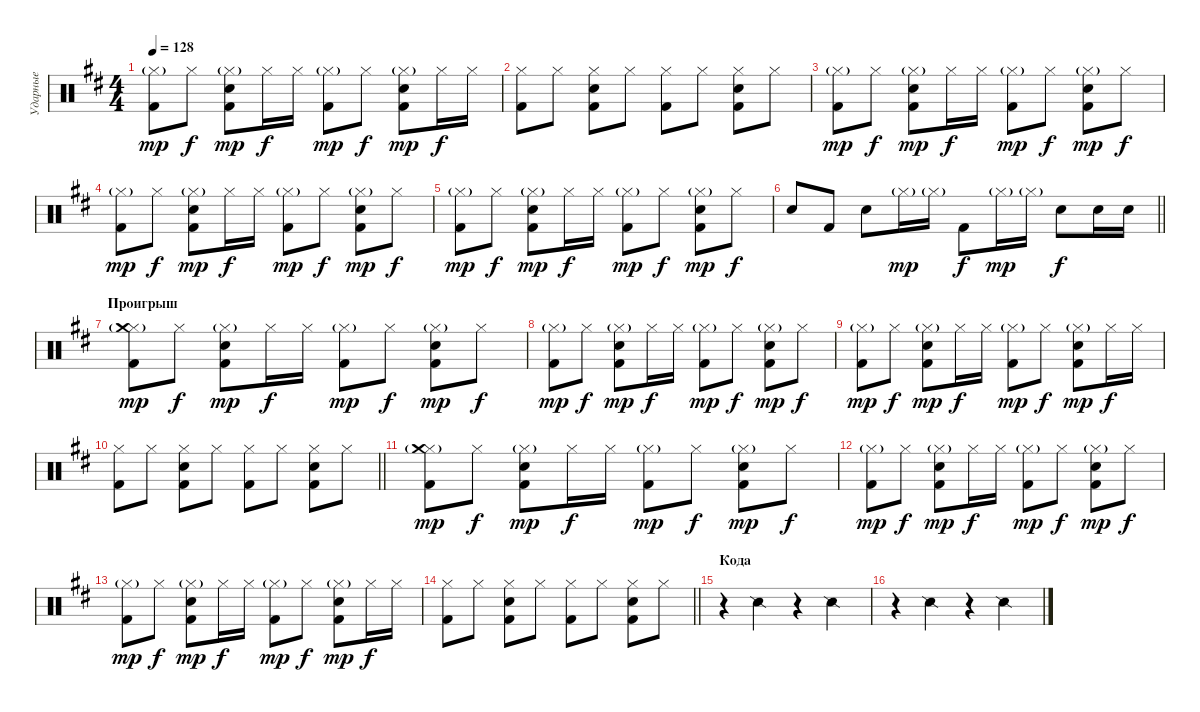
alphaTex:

\track ("Ударные" "Ударные") {instrument percussion}
\staff {score}
\articulation defaults
\ts (4 4)
\tempo 128
\clef neutral
\ks bminor
("Hi-Hat (closed)"{g} "Kick (hit) 2").8{dy mp} "Hi-Hat (closed)".8{dy f} ("Hi-Hat (closed)"{g} "Kick (hit) 2" "Snare (hit) 2").8{dy mp} "Hi-Hat (closed)".16{dy f} "Hi-Hat (closed)".16 ("Hi-Hat (closed)"{g} "Kick (hit) 2").8{dy mp} "Hi-Hat (closed)".8{dy f} ("Hi-Hat (closed)"{g} "Kick (hit) 2" "Snare (hit) 2").8{dy mp} "Hi-Hat (closed)".16{dy f} "Hi-Hat (closed)".16 |
("Hi-Hat (closed)" "Kick (hit) 2").8 "Hi-Hat (closed)".8 ("Hi-Hat (closed)" "Kick (hit) 2" "Snare (hit) 2").8 "Hi-Hat (closed)".8 ("Hi-Hat (closed)" "Kick (hit) 2").8 "Hi-Hat (closed)".8 ("Hi-Hat (closed)" "Kick (hit) 2" "Snare (hit) 2").8 "Hi-Hat (closed)".8 |
("Hi-Hat (closed)"{g} "Kick (hit) 2").8{dy mp} "Hi-Hat (closed)".8{dy f} ("Hi-Hat (closed)"{g} "Kick (hit) 2" "Snare (hit) 2").8{dy mp} "Hi-Hat (closed)".16{dy f} "Hi-Hat (closed)".16 ("Hi-Hat (closed)"{g} "Kick (hit) 2").8{dy mp} "Hi-Hat (closed)".8{dy f} ("Hi-Hat (closed)"{g} "Kick (hit) 2" "Snare (hit) 2").8{dy mp} "Hi-Hat (closed)".8{dy f} |
("Hi-Hat (closed)"{g} "Kick (hit) 2").8{dy mp} "Hi-Hat (closed)".8{dy f} ("Hi-Hat (closed)"{g} "Kick (hit) 2" "Snare (hit) 2").8{dy mp} "Hi-Hat (closed)".16{dy f} "Hi-Hat (closed)".16 ("Hi-Hat (closed)"{g} "Kick (hit) 2").8{dy mp} "Hi-Hat (closed)".8{dy f} ("Hi-Hat (closed)"{g} "Kick (hit) 2" "Snare (hit) 2").8{dy mp} "Hi-Hat (closed)".8{dy f} |
("Hi-Hat (closed)"{g} "Kick (hit) 2").8{dy mp} "Hi-Hat (closed)".8{dy f} ("Hi-Hat (closed)"{g} "Kick (hit) 2" "Snare (hit) 2").8{dy mp} "Hi-Hat (closed)".16{dy f} "Hi-Hat (closed)".16 ("Hi-Hat (closed)"{g} "Kick (hit) 2").8{dy mp} "Hi-Hat (closed)".8{dy f} ("Hi-Hat (closed)"{g} "Kick (hit) 2" "Snare (hit) 2").8{dy mp} "Hi-Hat (closed)".8{dy f} |
\barLineRight lightlight "Snare (hit) 2".8 "Kick (hit) 2".8 "Snare (hit) 2".8 "Hi-Hat (closed)"{g}.16{dy mp} "Hi-Hat (closed)"{g}.16 "Kick (hit) 2".8{dy f} "Hi-Hat (closed)"{g}.16{dy mp} "Hi-Hat (closed)"{g}.16 "Snare (hit) 2".8{dy f} "Snare (hit) 2".16 "Snare (hit) 2".16
|
\section ("" "Проигрыш")
("Hi-Hat (closed)"{g} "Crash medium (hit)" "Kick (hit) 2").8{dy mp} "Hi-Hat (closed)".8{dy f} ("Hi-Hat (closed)"{g} "Kick (hit) 2" "Snare (hit) 2").8{dy mp} "Hi-Hat (closed)".16{dy f} "Hi-Hat (closed)".16 ("Hi-Hat (closed)"{g} "Kick (hit) 2").8{dy mp} "Hi-Hat (closed)".8{dy f} ("Hi-Hat (closed)"{g} "Kick (hit) 2" "Snare (hit) 2").8{dy mp} "Hi-Hat (closed)".8{dy f} |
("Hi-Hat (closed)"{g} "Kick (hit) 2").8{dy mp} "Hi-Hat (closed)".8{dy f} ("Hi-Hat (closed)"{g} "Kick (hit) 2" "Snare (hit) 2").8{dy mp} "Hi-Hat (closed)".16{dy f} "Hi-Hat (closed)".16 ("Hi-Hat (closed)"{g} "Kick (hit) 2").8{dy mp} "Hi-Hat (closed)".8{dy f} ("Hi-Hat (closed)"{g} "Kick (hit) 2" "Snare (hit) 2").8{dy mp} "Hi-Hat (closed)".8{dy f} |
("Hi-Hat (closed)"{g} "Kick (hit) 2").8{dy mp} "Hi-Hat (closed)".8{dy f} ("Hi-Hat (closed)"{g} "Kick (hit) 2" "Snare (hit) 2").8{dy mp} "Hi-Hat (closed)".16{dy f} "Hi-Hat (closed)".16 ("Hi-Hat (closed)"{g} "Kick (hit) 2").8{dy mp} "Hi-Hat (closed)".8{dy f} ("Hi-Hat (closed)"{g} "Kick (hit) 2" "Snare (hit) 2").8{dy mp} "Hi-Hat (closed)".16{dy f} "Hi-Hat (closed)".16 |
\barLineRight lightlight
("Hi-Hat (closed)" "Kick (hit) 2").8 "Hi-Hat (closed)".8 ("Hi-Hat (closed)" "Kick (hit) 2" "Snare (hit) 2").8 "Hi-Hat (closed)".8 ("Hi-Hat (closed)" "Kick (hit) 2").8 "Hi-Hat (closed)".8 ("Hi-Hat (closed)" "Kick (hit) 2" "Snare (hit) 2").8 "Hi-Hat (closed)".8 |
("Hi-Hat (closed)"{g} "Crash medium (hit)" "Kick (hit) 2").8{dy mp} "Hi-Hat (closed)".8{dy f} ("Hi-Hat (closed)"{g} "Kick (hit) 2" "Snare (hit) 2").8{dy mp} "Hi-Hat (closed)".16{dy f} "Hi-Hat (closed)".16 ("Hi-Hat (closed)"{g} "Kick (hit) 2").8{dy mp} "Hi-Hat (closed)".8{dy f} ("Hi-Hat (closed)"{g} "Kick (hit) 2" "Snare (hit) 2").8{dy mp} "Hi-Hat (closed)".8{dy f} |
("Hi-Hat (closed)"{g} "Kick (hit) 2").8{dy mp} "Hi-Hat (closed)".8{dy f} ("Hi-Hat (closed)"{g} "Kick (hit) 2" "Snare (hit) 2").8{dy mp} "Hi-Hat (closed)".16{dy f} "Hi-Hat (closed)".16 ("Hi-Hat (closed)"{g} "Kick (hit) 2").8{dy mp} "Hi-Hat (closed)".8{dy f} ("Hi-Hat (closed)"{g} "Kick (hit) 2" "Snare (hit) 2").8{dy mp} "Hi-Hat (closed)".8{dy f} |
("Hi-Hat (closed)"{g} "Kick (hit) 2").8{dy mp} "Hi-Hat (closed)".8{dy f} ("Hi-Hat (closed)"{g} "Kick (hit) 2" "Snare (hit) 2").8{dy mp} "Hi-Hat (closed)".16{dy f} "Hi-Hat (closed)".16 ("Hi-Hat (closed)"{g} "Kick (hit) 2").8{dy mp} "Hi-Hat (closed)".8{dy f} ("Hi-Hat (closed)"{g} "Kick (hit) 2" "Snare (hit) 2").8{dy mp} "Hi-Hat (closed)".16{dy f} "Hi-Hat (closed)".16 |
\barLineRight lightlight
("Hi-Hat (closed)" "Kick (hit) 2").8 "Hi-Hat (closed)".8 ("Hi-Hat (closed)" "Kick (hit) 2" "Snare (hit) 2").8 "Hi-Hat (closed)".8 ("Hi-Hat (closed)" "Kick (hit) 2").8 "Hi-Hat (closed)".8 ("Hi-Hat (closed)" "Kick (hit) 2" "Snare (hit) 2").8 "Hi-Hat (closed)".8 |
\section ("" "Кода")
r.4 "Snare (side stick) 2".4 r.4 "Snare (side stick) 2".4 |
r.4 "Snare (side stick) 2".4 r.4 "Snare (side stick) 2".4
